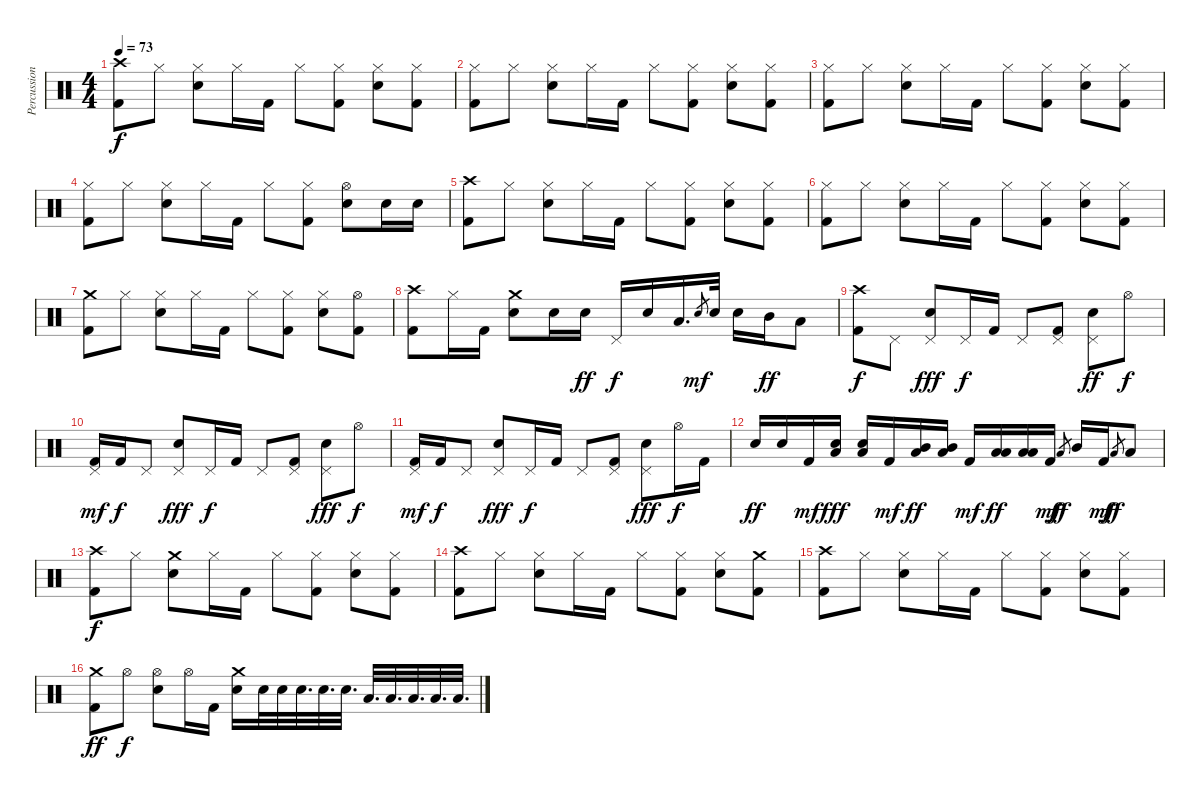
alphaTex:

\track ("Percussion" "Percussion") {instrument percussion}
\staff {score}
\articulation defaults
\ts (4 4)
\tempo 73
\clef neutral
\ks c
("Crash high (hit)" "Kick (hit) 2").8{dy f} "Hi-Hat (closed)".8 ("Hi-Hat (closed)" "Electric Snare (hit)").8 "Hi-Hat (closed)".16 "Kick (hit) 2".16 "Hi-Hat (closed)".8 ("Hi-Hat (closed)" "Kick (hit) 2").8 ("Hi-Hat (closed)" "Electric Snare (hit)").8 ("Hi-Hat (closed)" "Kick (hit) 2").8 |
("Hi-Hat (closed)" "Kick (hit) 2").8 "Hi-Hat (closed)".8 ("Hi-Hat (closed)" "Electric Snare (hit)").8 "Hi-Hat (closed)".16 "Kick (hit) 2".16 "Hi-Hat (closed)".8 ("Hi-Hat (closed)" "Kick (hit) 2").8 ("Hi-Hat (closed)" "Electric Snare (hit)").8 ("Hi-Hat (closed)" "Kick (hit) 2").8 |
("Hi-Hat (closed)" "Kick (hit) 2").8 "Hi-Hat (closed)".8 ("Hi-Hat (closed)" "Electric Snare (hit)").8 "Hi-Hat (closed)".16 "Kick (hit) 2".16 "Hi-Hat (closed)".8 ("Hi-Hat (closed)" "Kick (hit) 2").8 ("Hi-Hat (closed)" "Electric Snare (hit)").8 ("Hi-Hat (closed)" "Kick (hit) 2").8 |
("Hi-Hat (closed)" "Kick (hit) 2").8 "Hi-Hat (closed)".8 ("Hi-Hat (closed)" "Electric Snare (hit)").8 "Hi-Hat (closed)".16 "Kick (hit) 2".16 "Hi-Hat (closed)".8 ("Hi-Hat (closed)" "Kick (hit) 2").8 ("Hi-Hat (open)" "Electric Snare (hit)").8 "Electric Snare (hit)".16 "Electric Snare (hit)".16 |
("Crash high (hit)" "Kick (hit) 2").8 "Hi-Hat (closed)".8 ("Hi-Hat (closed)" "Electric Snare (hit)").8 "Hi-Hat (closed)".16 "Kick (hit) 2".16 "Hi-Hat (closed)".8 ("Hi-Hat (closed)" "Kick (hit) 2").8 ("Hi-Hat (closed)" "Electric Snare (hit)").8 ("Hi-Hat (closed)" "Kick (hit) 2").8 |
("Hi-Hat (closed)" "Kick (hit) 2").8 "Hi-Hat (closed)".8 ("Hi-Hat (closed)" "Electric Snare (hit)").8 "Hi-Hat (closed)".16 "Kick (hit) 2".16 "Hi-Hat (closed)".8 ("Hi-Hat (closed)" "Kick (hit) 2").8 ("Hi-Hat (closed)" "Electric Snare (hit)").8 ("Hi-Hat (closed)" "Kick (hit) 2").8 |
("Crash medium (hit)" "Kick (hit) 2").8 "Hi-Hat (closed)".8 ("Hi-Hat (closed)" "Electric Snare (hit)").8 "Hi-Hat (closed)".16 "Kick (hit) 2".16 "Hi-Hat (closed)".8 ("Hi-Hat (closed)" "Kick (hit) 2").8 ("Hi-Hat (closed)" "Electric Snare (hit)").8 ("Hi-Hat (open)" "Kick (hit) 2").8 |
("Crash high (hit)" "Kick (hit) 2").8 "Hi-Hat (closed)".16 "Kick (hit) 2".16 ("Crash medium (hit)" "Electric Snare (hit)").8 "Electric Snare (hit)".16 "Electric Snare (hit)".16{dy ff} "Pedal Hi-Hat (hit)".16{dy f} "Electric Snare (hit)".16 "Low Tom (hit)".16{d} "Electric Snare (hit)".8{gr dy mf} "Electric Snare (hit)".32 "Electric Snare (hit)".16 "Mid Tom (hit)".16{dy ff} "Low Tom (hit)".8 |
("Crash high (hit)" "Kick (hit) 2").8{dy f} "Pedal Hi-Hat (hit)".8 ("Pedal Hi-Hat (hit)" "Electric Snare (hit)").8{dy fff} "Pedal Hi-Hat (hit)".16{dy f} "Kick (hit) 2".16 "Pedal Hi-Hat (hit)".8 ("Pedal Hi-Hat (hit)" "Kick (hit) 2").8 ("Pedal Hi-Hat (hit)" "Electric Snare (hit)").8{dy ff} "Hi-Hat (open)".8{dy f} |
("Pedal Hi-Hat (hit)" "Kick (hit) 2").16{dy mf} "Kick (hit) 2".16{dy f} "Pedal Hi-Hat (hit)".8 ("Pedal Hi-Hat (hit)" "Electric Snare (hit)").8{dy fff} "Pedal Hi-Hat (hit)".16{dy f} "Kick (hit) 2".16 "Pedal Hi-Hat (hit)".8 ("Pedal Hi-Hat (hit)" "Kick (hit) 2").8 ("Pedal Hi-Hat (hit)" "Electric Snare (hit)").8{dy fff} "Hi-Hat (open)".8{dy f} |
("Pedal Hi-Hat (hit)" "Kick (hit) 2").16{dy mf} "Kick (hit) 2".16{dy f} "Pedal Hi-Hat (hit)".8 ("Pedal Hi-Hat (hit)" "Electric Snare (hit)").8{dy fff} "Pedal Hi-Hat (hit)".16{dy f} "Kick (hit) 2".16 "Pedal Hi-Hat (hit)".8 ("Pedal Hi-Hat (hit)" "Kick (hit) 2").8 ("Pedal Hi-Hat (hit)" "Electric Snare (hit)").8{dy fff} "Hi-Hat (open)".16{dy f} "Kick (hit) 2".16 |
"Electric Snare (hit)".16{dy ff} "Electric Snare (hit)".16 "Kick (hit) 2".16{dy mf} ("Low Floor Tom (hit)" "Electric Snare (hit)").16{dy fff} ("Low Floor Tom (hit)" "Electric Snare (hit)").16 "Kick (hit) 2".16{dy mf} ("Low Tom (hit)" "Mid Tom (hit)").16{dy ff} ("Low Tom (hit)" "Mid Tom (hit)").16 "Kick (hit) 2".16{dy mf} ("Low Floor Tom (hit)" "Low Tom (hit)").16{dy ff} ("Low Floor Tom (hit)" "Low Tom (hit)").16 "Kick (hit) 2".16{dy mf} "Low Tom (hit)".8{gr dy ff} "Mid Tom (hit)".16 "Kick (hit) 2".16{dy mf} "Low Floor Tom (hit)".8{gr dy ff} "Low Tom (hit)".8 |
("Crash high (hit)" "Kick (hit) 2").8{dy f} "Hi-Hat (closed)".8 ("Crash medium (hit)" "Electric Snare (hit)").8 "Hi-Hat (closed)".16 "Kick (hit) 2".16 "Hi-Hat (closed)".8 ("Hi-Hat (closed)" "Kick (hit) 2").8 ("Hi-Hat (closed)" "Electric Snare (hit)").8 ("Hi-Hat (closed)" "Kick (hit) 2").8 |
("Crash high (hit)" "Kick (hit) 2").8 "Hi-Hat (closed)".8 ("Hi-Hat (closed)" "Electric Snare (hit)").8 "Hi-Hat (closed)".16 "Kick (hit) 2".16 "Hi-Hat (closed)".8 ("Hi-Hat (closed)" "Kick (hit) 2").8 ("Hi-Hat (closed)" "Electric Snare (hit)").8 ("Crash medium (hit)" "Kick (hit) 2").8 |
("Crash high (hit)" "Kick (hit) 2").8 "Hi-Hat (closed)".8 ("Hi-Hat (closed)" "Electric Snare (hit)").8 "Hi-Hat (closed)".16 "Kick (hit) 2".16 "Hi-Hat (closed)".8 ("Hi-Hat (closed)" "Kick (hit) 2").8 ("Hi-Hat (closed)" "Electric Snare (hit)").8 ("Hi-Hat (closed)" "Kick (hit) 2").8 |
("Crash medium (hit)" "Kick (hit) 2").8{dy ff} "Hi-Hat (open)".8{dy f} ("Hi-Hat (open)" "Electric Snare (hit)").8 "Hi-Hat (open)".16 "Kick (hit) 2".16 ("Crash medium (hit)" "Electric Snare (hit)").16 "Electric Snare (hit)".32 "Electric Snare (hit)".32 "Electric Snare (hit)".32{d} "Electric Snare (hit)".32{d} "Electric Snare (hit)".32{d} "Low Tom (hit)".32{d} "Low Tom (hit)".32{d} "Low Floor Tom (hit)".32{d} "Low Floor Tom (hit)".32{d} "Low Floor Tom (hit)".32{d}
